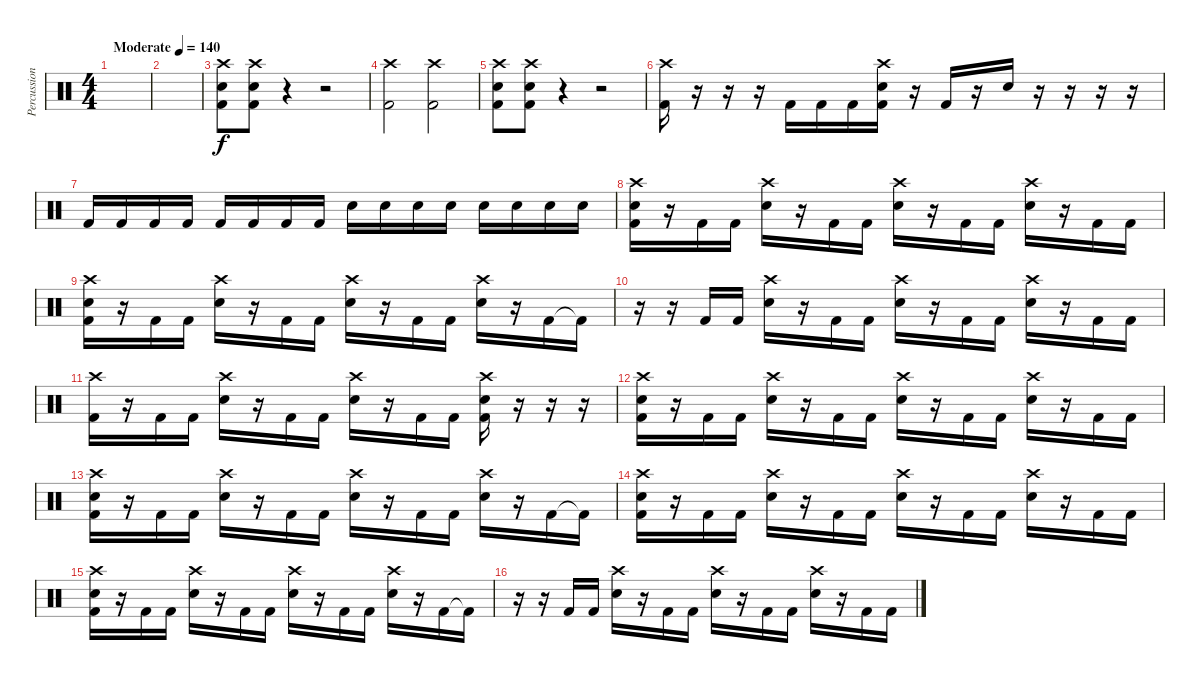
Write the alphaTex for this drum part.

\track ("Percussion" "Percussion") {instrument percussion}
\staff {score}
\articulation defaults
\ts (4 4)
\tempo (140 "Moderate")
\clef neutral
\ks c
|
|
("Crash high (hit)" "Snare (hit) 2" "Kick (hit) 2").8 ("Crash high (hit)" "Snare (hit) 2" "Kick (hit) 2").8 r.4 r.2 |
("Crash high (hit)" "Kick (hit) 2").2 ("Crash high (hit)" "Kick (hit) 2").2 |
("Crash high (hit)" "Snare (hit) 2" "Kick (hit) 2").8 ("Crash high (hit)" "Snare (hit) 2" "Kick (hit) 2").8 r.4 r.2 |
("Crash high (hit)" "Kick (hit) 2").16 r.16 r.16 r.16 "Kick (hit) 2".16 "Kick (hit) 2".16 "Kick (hit) 2".16 ("Crash high (hit)" "Snare (hit) 2" "Kick (hit) 2").16 r.16 "Kick (hit) 2".16 r.16 "Snare (hit) 2".16 r.16 r.16 r.16 r.16 |
"Kick (hit) 2".16 "Kick (hit) 2".16 "Kick (hit) 2".16 "Kick (hit) 2".16 "Kick (hit) 2".16 "Kick (hit) 2".16 "Kick (hit) 2".16 "Kick (hit) 2".16 "Snare (hit) 2".16 "Snare (hit) 2".16 "Snare (hit) 2".16 "Snare (hit) 2".16 "Snare (hit) 2".16 "Snare (hit) 2".16 "Snare (hit) 2".16 "Snare (hit) 2".16 |
("Crash high (hit)" "Snare (hit) 2" "Kick (hit) 2").16 r.16 "Kick (hit) 2".16 "Kick (hit) 2".16 ("Crash high (hit)" "Snare (hit) 2").16 r.16 "Kick (hit) 2".16 "Kick (hit) 2".16 ("Crash high (hit)" "Snare (hit) 2").16 r.16 "Kick (hit) 2".16 "Kick (hit) 2".16 ("Crash high (hit)" "Snare (hit) 2").16 r.16 "Kick (hit) 2".16 "Kick (hit) 2".16 |
("Crash high (hit)" "Snare (hit) 2" "Kick (hit) 2").16 r.16 "Kick (hit) 2".16 "Kick (hit) 2".16 ("Crash high (hit)" "Snare (hit) 2").16 r.16 "Kick (hit) 2".16 "Kick (hit) 2".16 ("Crash high (hit)" "Snare (hit) 2").16 r.16 "Kick (hit) 2".16 "Kick (hit) 2".16 ("Crash high (hit)" "Snare (hit) 2").16 r.16 "Kick (hit) 2".16 "Kick (hit) 2"{t}.16 |
r.16 r.16 "Kick (hit) 2".16 "Kick (hit) 2".16 ("Crash high (hit)" "Snare (hit) 2").16 r.16 "Kick (hit) 2".16 "Kick (hit) 2".16 ("Crash high (hit)" "Snare (hit) 2").16 r.16 "Kick (hit) 2".16 "Kick (hit) 2".16 ("Crash high (hit)" "Snare (hit) 2").16 r.16 "Kick (hit) 2".16 "Kick (hit) 2".16 |
("Crash high (hit)" "Kick (hit) 2").16 r.16 "Kick (hit) 2".16 "Kick (hit) 2".16 ("Crash high (hit)" "Snare (hit) 2").16 r.16 "Kick (hit) 2".16 "Kick (hit) 2".16 ("Crash high (hit)" "Snare (hit) 2").16 r.16 "Kick (hit) 2".16 "Kick (hit) 2".16 ("Crash high (hit)" "Snare (hit) 2" "Kick (hit) 2").16 r.16 r.16 r.16 |
("Crash high (hit)" "Snare (hit) 2" "Kick (hit) 2").16 r.16 "Kick (hit) 2".16 "Kick (hit) 2".16 ("Crash high (hit)" "Snare (hit) 2").16 r.16 "Kick (hit) 2".16 "Kick (hit) 2".16 ("Crash high (hit)" "Snare (hit) 2").16 r.16 "Kick (hit) 2".16 "Kick (hit) 2".16 ("Crash high (hit)" "Snare (hit) 2").16 r.16 "Kick (hit) 2".16 "Kick (hit) 2".16 |
("Crash high (hit)" "Snare (hit) 2" "Kick (hit) 2").16 r.16 "Kick (hit) 2".16 "Kick (hit) 2".16 ("Crash high (hit)" "Snare (hit) 2").16 r.16 "Kick (hit) 2".16 "Kick (hit) 2".16 ("Crash high (hit)" "Snare (hit) 2").16 r.16 "Kick (hit) 2".16 "Kick (hit) 2".16 ("Crash high (hit)" "Snare (hit) 2").16 r.16 "Kick (hit) 2".16 "Kick (hit) 2"{t}.16 |
("Crash high (hit)" "Snare (hit) 2" "Kick (hit) 2").16 r.16 "Kick (hit) 2".16 "Kick (hit) 2".16 ("Crash high (hit)" "Snare (hit) 2").16 r.16 "Kick (hit) 2".16 "Kick (hit) 2".16 ("Crash high (hit)" "Snare (hit) 2").16 r.16 "Kick (hit) 2".16 "Kick (hit) 2".16 ("Crash high (hit)" "Snare (hit) 2").16 r.16 "Kick (hit) 2".16 "Kick (hit) 2".16 |
("Crash high (hit)" "Snare (hit) 2" "Kick (hit) 2").16 r.16 "Kick (hit) 2".16 "Kick (hit) 2".16 ("Crash high (hit)" "Snare (hit) 2").16 r.16 "Kick (hit) 2".16 "Kick (hit) 2".16 ("Crash high (hit)" "Snare (hit) 2").16 r.16 "Kick (hit) 2".16 "Kick (hit) 2".16 ("Crash high (hit)" "Snare (hit) 2").16 r.16 "Kick (hit) 2".16 "Kick (hit) 2"{t}.16 |
r.16 r.16 "Kick (hit) 2".16 "Kick (hit) 2".16 ("Crash high (hit)" "Snare (hit) 2").16 r.16 "Kick (hit) 2".16 "Kick (hit) 2".16 ("Crash high (hit)" "Snare (hit) 2").16 r.16 "Kick (hit) 2".16 "Kick (hit) 2".16 ("Crash high (hit)" "Snare (hit) 2").16 r.16 "Kick (hit) 2".16 "Kick (hit) 2".16
